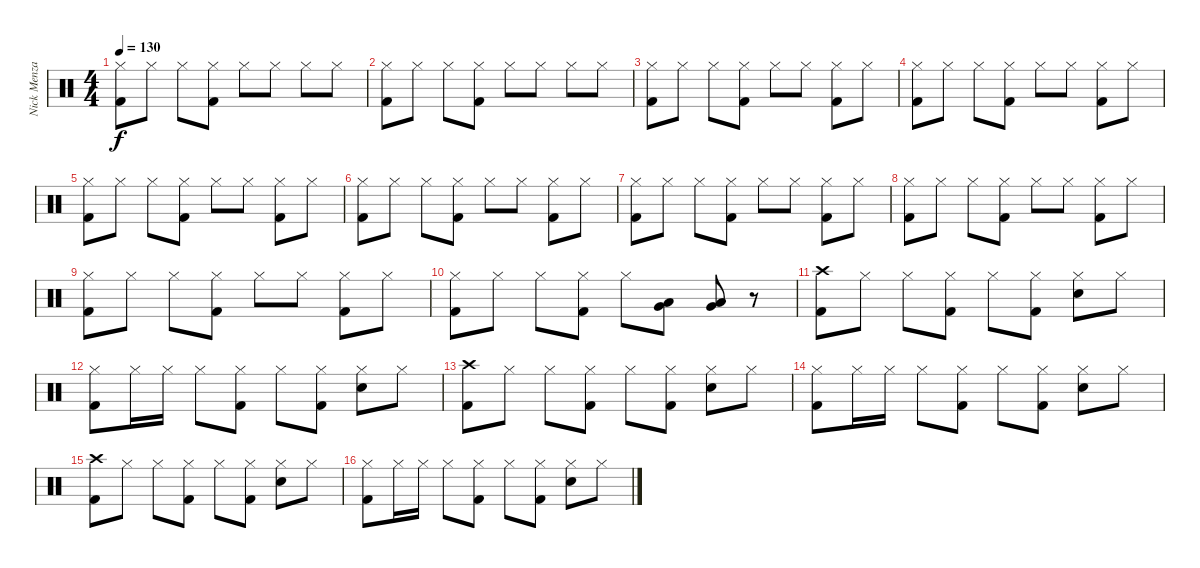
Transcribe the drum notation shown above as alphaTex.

\track ("Nick Menza" "Nick Menza") {instrument percussion}
\staff {score}
\articulation defaults
\ts (4 4)
\tempo 130
\clef neutral
\ks c
("Hi-Hat (closed)" "Kick (hit) 2").8{dy f} "Hi-Hat (closed)".8 "Hi-Hat (closed)".8 ("Hi-Hat (closed)" "Kick (hit) 2").8 "Hi-Hat (closed)".8 "Hi-Hat (closed)".8 "Hi-Hat (closed)".8 "Hi-Hat (closed)".8 |
("Hi-Hat (closed)" "Kick (hit) 2").8 "Hi-Hat (closed)".8 "Hi-Hat (closed)".8 ("Hi-Hat (closed)" "Kick (hit) 2").8 "Hi-Hat (closed)".8 "Hi-Hat (closed)".8 "Hi-Hat (closed)".8 "Hi-Hat (closed)".8 |
("Hi-Hat (closed)" "Kick (hit) 2").8 "Hi-Hat (closed)".8 "Hi-Hat (closed)".8 ("Hi-Hat (closed)" "Kick (hit) 2").8 "Hi-Hat (closed)".8 "Hi-Hat (closed)".8 ("Hi-Hat (closed)" "Kick (hit) 2").8 "Hi-Hat (closed)".8 |
("Hi-Hat (closed)" "Kick (hit) 2").8 "Hi-Hat (closed)".8 "Hi-Hat (closed)".8 ("Hi-Hat (closed)" "Kick (hit) 2").8 "Hi-Hat (closed)".8 "Hi-Hat (closed)".8 ("Hi-Hat (closed)" "Kick (hit) 2").8 "Hi-Hat (closed)".8 |
("Hi-Hat (closed)" "Kick (hit) 2").8 "Hi-Hat (closed)".8 "Hi-Hat (closed)".8 ("Hi-Hat (closed)" "Kick (hit) 2").8 "Hi-Hat (closed)".8 "Hi-Hat (closed)".8 ("Hi-Hat (closed)" "Kick (hit) 2").8 "Hi-Hat (closed)".8 |
("Hi-Hat (closed)" "Kick (hit) 2").8 "Hi-Hat (closed)".8 "Hi-Hat (closed)".8 ("Hi-Hat (closed)" "Kick (hit) 2").8 "Hi-Hat (closed)".8 "Hi-Hat (closed)".8 ("Hi-Hat (closed)" "Kick (hit) 2").8 "Hi-Hat (closed)".8 |
("Hi-Hat (closed)" "Kick (hit) 2").8 "Hi-Hat (closed)".8 "Hi-Hat (closed)".8 ("Hi-Hat (closed)" "Kick (hit) 2").8 "Hi-Hat (closed)".8 "Hi-Hat (closed)".8 ("Hi-Hat (closed)" "Kick (hit) 2").8 "Hi-Hat (closed)".8 |
("Hi-Hat (closed)" "Kick (hit) 2").8 "Hi-Hat (closed)".8 "Hi-Hat (closed)".8 ("Hi-Hat (closed)" "Kick (hit) 2").8 "Hi-Hat (closed)".8 "Hi-Hat (closed)".8 ("Hi-Hat (closed)" "Kick (hit) 2").8 "Hi-Hat (closed)".8 |
("Hi-Hat (closed)" "Kick (hit) 2").8 "Hi-Hat (closed)".8 "Hi-Hat (closed)".8 ("Hi-Hat (closed)" "Kick (hit) 2").8 "Hi-Hat (closed)".8 "Hi-Hat (closed)".8 ("Hi-Hat (closed)" "Kick (hit) 2").8 "Hi-Hat (closed)".8 |
("Hi-Hat (closed)" "Kick (hit) 2").8 "Hi-Hat (closed)".8 "Hi-Hat (closed)".8 ("Hi-Hat (closed)" "Kick (hit) 2").8 "Hi-Hat (closed)".8 ("Very Low Tom (hit)" "Low Tom (hit)").8 ("Very Low Tom (hit)" "Low Tom (hit)").8 r.8 |
("Crash high (hit)" "Kick (hit) 2").8 "Hi-Hat (closed)".8 "Hi-Hat (closed)".8 ("Hi-Hat (closed)" "Kick (hit) 2").8 "Hi-Hat (closed)".8 ("Hi-Hat (closed)" "Kick (hit) 2").8 ("Hi-Hat (closed)" "Electric Snare (hit)").8 "Hi-Hat (closed)".8 |
("Hi-Hat (closed)" "Kick (hit) 2").8 "Hi-Hat (closed)".16 "Hi-Hat (closed)".16 "Hi-Hat (closed)".8 ("Hi-Hat (closed)" "Kick (hit) 2").8 "Hi-Hat (closed)".8 ("Hi-Hat (closed)" "Kick (hit) 2").8 ("Hi-Hat (closed)" "Electric Snare (hit)").8 "Hi-Hat (closed)".8 |
("Crash high (hit)" "Kick (hit) 2").8 "Hi-Hat (closed)".8 "Hi-Hat (closed)".8 ("Hi-Hat (closed)" "Kick (hit) 2").8 "Hi-Hat (closed)".8 ("Hi-Hat (closed)" "Kick (hit) 2").8 ("Hi-Hat (closed)" "Electric Snare (hit)").8 "Hi-Hat (closed)".8 |
("Hi-Hat (closed)" "Kick (hit) 2").8 "Hi-Hat (closed)".16 "Hi-Hat (closed)".16 "Hi-Hat (closed)".8 ("Hi-Hat (closed)" "Kick (hit) 2").8 "Hi-Hat (closed)".8 ("Hi-Hat (closed)" "Kick (hit) 2").8 ("Hi-Hat (closed)" "Electric Snare (hit)").8 "Hi-Hat (closed)".8 |
("Crash high (hit)" "Kick (hit) 2").8 "Hi-Hat (closed)".8 "Hi-Hat (closed)".8 ("Hi-Hat (closed)" "Kick (hit) 2").8 "Hi-Hat (closed)".8 ("Hi-Hat (closed)" "Kick (hit) 2").8 ("Hi-Hat (closed)" "Electric Snare (hit)").8 "Hi-Hat (closed)".8 |
("Hi-Hat (closed)" "Kick (hit) 2").8 "Hi-Hat (closed)".16 "Hi-Hat (closed)".16 "Hi-Hat (closed)".8 ("Hi-Hat (closed)" "Kick (hit) 2").8 "Hi-Hat (closed)".8 ("Hi-Hat (closed)" "Kick (hit) 2").8 ("Hi-Hat (closed)" "Electric Snare (hit)").8 "Hi-Hat (closed)".8
